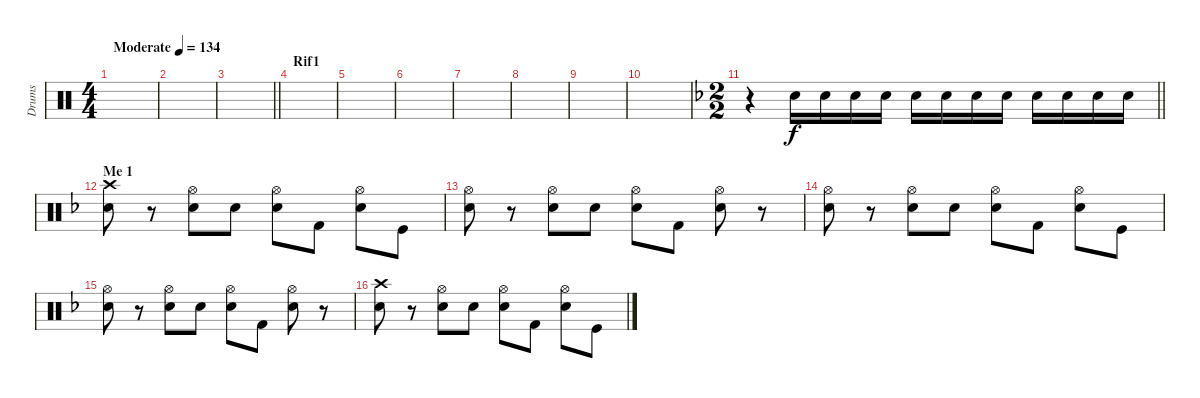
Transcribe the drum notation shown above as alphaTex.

\track ("Drums" "Drums") {instrument percussion}
\staff {score}
\articulation defaults
\ts (4 4)
\tempo (134 "Moderate")
\clef neutral
\ks c
|
|
\barLineRight lightlight
|
\section ("" "Rif1")
|
|
|
|
|
|
|
\ts (2 2)
\barLineRight lightlight
\ks f
r.4 "Electric Snare (hit)".16 "Electric Snare (hit)".16 "Electric Snare (hit)".16 "Electric Snare (hit)".16 "Electric Snare (hit)".16 "Electric Snare (hit)".16 "Snare (hit) 2".16 "Snare (hit) 2".16 "Snare (hit) 2".16 "Snare (hit) 2".16 "Snare (hit) 2".16 "Snare (hit) 2".16 |
\section ("" "Me 1")
("Snare (hit) 2" "Crash high (hit)").8 r.8 ("Snare (hit) 2" "Hi-Hat (open)").8 "Electric Snare (hit)".8 ("Snare (hit) 2" "Hi-Hat (open)").8 "Kick (hit) 2".8 ("Snare (hit) 2" "Hi-Hat (open)").8 "Kick (hit)".8 |
("Snare (hit) 2" "Hi-Hat (open)").8 r.8 ("Snare (hit) 2" "Hi-Hat (open)").8 "Electric Snare (hit)".8 ("Snare (hit) 2" "Hi-Hat (open)").8 "Kick (hit) 2".8 ("Snare (hit) 2" "Hi-Hat (open)").8 r.8 |
("Snare (hit) 2" "Hi-Hat (open)").8 r.8 ("Snare (hit) 2" "Hi-Hat (open)").8 "Electric Snare (hit)".8 ("Snare (hit) 2" "Hi-Hat (open)").8 "Kick (hit) 2".8 ("Snare (hit) 2" "Hi-Hat (open)").8 "Kick (hit)".8 |
("Snare (hit) 2" "Hi-Hat (open)").8 r.8 ("Snare (hit) 2" "Hi-Hat (open)").8 "Electric Snare (hit)".8 ("Snare (hit) 2" "Hi-Hat (open)").8 "Kick (hit) 2".8 ("Snare (hit) 2" "Hi-Hat (open)").8 r.8 |
("Snare (hit) 2" "Crash high (hit)").8 r.8 ("Snare (hit) 2" "Hi-Hat (open)").8 "Electric Snare (hit)".8 ("Snare (hit) 2" "Hi-Hat (open)").8 "Kick (hit) 2".8 ("Snare (hit) 2" "Hi-Hat (open)").8 "Kick (hit)".8
